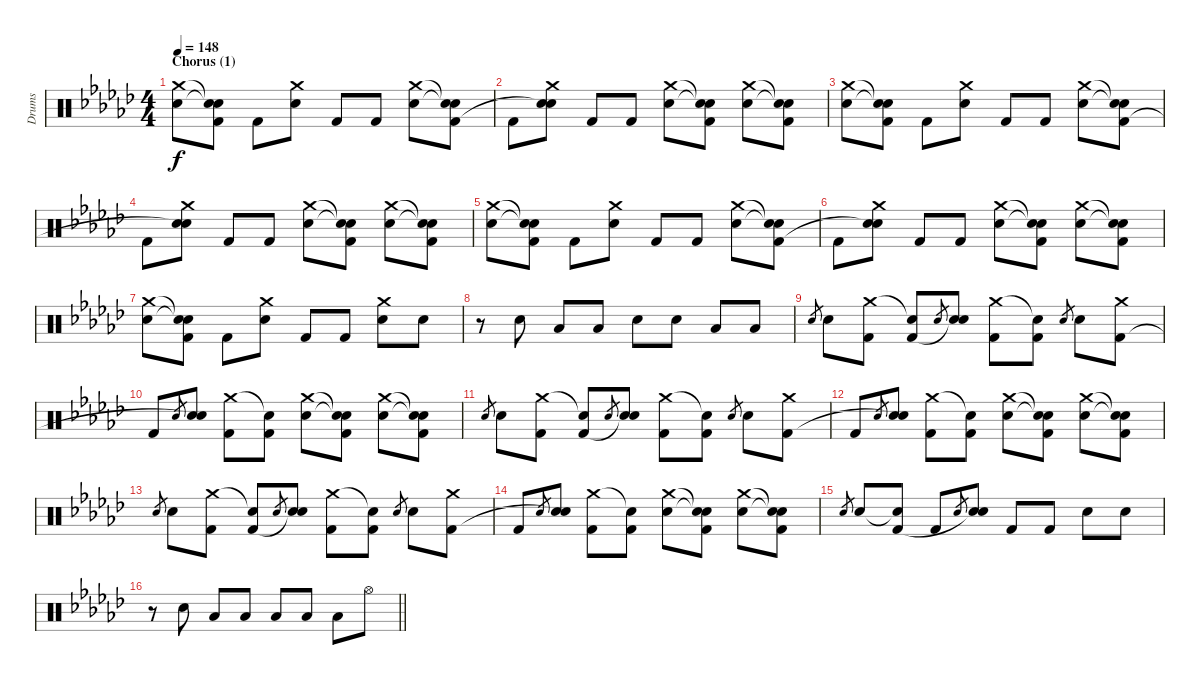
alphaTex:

\track ("Drums" "Drums") {instrument percussion}
\staff {score}
\articulation defaults
\ts (4 4)
\section ("" "Chorus (1)")
\tempo 148
\clef neutral
\ks ebminor
("Crash medium (hit)" "Electric Snare (hit)").8{dy f} ("Snare (hit)"{t} "Snare (hit)"{t} "Kick (hit) 2").8 "Kick (hit) 2".8 ("Crash medium (hit)" "Electric Snare (hit)").8 "Kick (hit) 2".8 "Kick (hit) 2".8 ("Crash medium (hit)" "Electric Snare (hit)").8 ("Snare (hit)"{t} "Snare (hit)"{t} "Kick (hit) 2").8 |
"Kick (hit) 2".8 ("Crash medium (hit)" "Electric Snare (hit)" "Snare (hit)"{t}).8 "Kick (hit) 2".8 "Kick (hit) 2".8 ("Crash medium (hit)" "Electric Snare (hit)").8 ("Snare (hit)"{t} "Snare (hit)"{t} "Kick (hit) 2").8 ("Crash medium (hit)" "Electric Snare (hit)").8 ("Snare (hit)"{t} "Snare (hit)"{t} "Kick (hit) 2").8 |
("Crash medium (hit)" "Electric Snare (hit)").8 ("Snare (hit)"{t} "Snare (hit)"{t} "Kick (hit) 2").8 "Kick (hit) 2".8 ("Crash medium (hit)" "Electric Snare (hit)").8 "Kick (hit) 2".8 "Kick (hit) 2".8 ("Crash medium (hit)" "Electric Snare (hit)").8 ("Snare (hit)"{t} "Snare (hit)"{t} "Kick (hit) 2").8 |
"Kick (hit) 2".8 ("Crash medium (hit)" "Electric Snare (hit)" "Snare (hit)"{t}).8 "Kick (hit) 2".8 "Kick (hit) 2".8 ("Crash medium (hit)" "Electric Snare (hit)").8 ("Snare (hit)"{t} "Snare (hit)"{t} "Kick (hit) 2").8 ("Crash medium (hit)" "Electric Snare (hit)").8 ("Snare (hit)"{t} "Snare (hit)"{t} "Kick (hit) 2").8 |
("Crash medium (hit)" "Electric Snare (hit)").8 ("Snare (hit)"{t} "Snare (hit)"{t} "Kick (hit) 2").8 "Kick (hit) 2".8 ("Crash medium (hit)" "Electric Snare (hit)").8 "Kick (hit) 2".8 "Kick (hit) 2".8 ("Crash medium (hit)" "Electric Snare (hit)").8 ("Snare (hit)"{t} "Snare (hit)"{t} "Kick (hit) 2").8 |
"Kick (hit) 2".8 ("Crash medium (hit)" "Electric Snare (hit)" "Snare (hit)"{t}).8 "Kick (hit) 2".8 "Kick (hit) 2".8 ("Crash medium (hit)" "Electric Snare (hit)").8 ("Snare (hit)"{t} "Snare (hit)"{t} "Kick (hit) 2").8 ("Crash medium (hit)" "Electric Snare (hit)").8 ("Snare (hit)"{t} "Snare (hit)"{t} "Kick (hit) 2").8 |
("Crash medium (hit)" "Electric Snare (hit)").8 ("Snare (hit)"{t} "Snare (hit)"{t} "Kick (hit) 2").8 "Kick (hit) 2".8 ("Crash medium (hit)" "Electric Snare (hit)").8 "Kick (hit) 2".8 "Kick (hit) 2".8 ("Crash medium (hit)" "Electric Snare (hit)").8 "Electric Snare (hit)".8 |
r.8 "Electric Snare (hit)".8 "Low Floor Tom (hit)".8 "Low Floor Tom (hit)".8 "Electric Snare (hit)".8 "Electric Snare (hit)".8 "Low Floor Tom (hit)".8 "Low Floor Tom (hit)".8 |
"Electric Snare (hit)".8{gr} "Electric Snare (hit)".8 ("Crash medium (hit)" "Kick (hit) 2").8 ("Snare (hit)"{t} "Kick (hit) 2").8 "Electric Snare (hit)".8{gr} ("Electric Snare (hit)" "Snare (hit)"{t}).8 ("Crash medium (hit)" "Kick (hit) 2").8 ("Snare (hit)"{t} "Kick (hit) 2").8 "Electric Snare (hit)".8{gr} "Electric Snare (hit)".8 ("Crash medium (hit)" "Kick (hit) 2").8 |
"Kick (hit) 2".8 "Electric Snare (hit)".8{gr} ("Electric Snare (hit)" "Snare (hit)"{t}).8 ("Crash medium (hit)" "Kick (hit) 2").8 ("Snare (hit)"{t} "Kick (hit) 2").8 ("Crash medium (hit)" "Electric Snare (hit)").8 ("Snare (hit)"{t} "Snare (hit)"{t} "Kick (hit) 2").8 ("Crash medium (hit)" "Electric Snare (hit)").8 ("Snare (hit)"{t} "Snare (hit)"{t} "Kick (hit) 2").8 |
"Electric Snare (hit)".8{gr} "Electric Snare (hit)".8 ("Crash medium (hit)" "Kick (hit) 2").8 ("Snare (hit)"{t} "Kick (hit) 2").8 "Electric Snare (hit)".8{gr} ("Electric Snare (hit)" "Snare (hit)"{t}).8 ("Crash medium (hit)" "Kick (hit) 2").8 ("Snare (hit)"{t} "Kick (hit) 2").8 "Electric Snare (hit)".8{gr} "Electric Snare (hit)".8 ("Crash medium (hit)" "Kick (hit) 2").8 |
"Kick (hit) 2".8 "Electric Snare (hit)".8{gr} ("Electric Snare (hit)" "Snare (hit)"{t}).8 ("Crash medium (hit)" "Kick (hit) 2").8 ("Snare (hit)"{t} "Kick (hit) 2").8 ("Crash medium (hit)" "Electric Snare (hit)").8 ("Snare (hit)"{t} "Snare (hit)"{t} "Kick (hit) 2").8 ("Crash medium (hit)" "Electric Snare (hit)").8 ("Snare (hit)"{t} "Snare (hit)"{t} "Kick (hit) 2").8 |
"Electric Snare (hit)".8{gr} "Electric Snare (hit)".8 ("Crash medium (hit)" "Kick (hit) 2").8 ("Snare (hit)"{t} "Kick (hit) 2").8 "Electric Snare (hit)".8{gr} ("Electric Snare (hit)" "Snare (hit)"{t}).8 ("Crash medium (hit)" "Kick (hit) 2").8 ("Snare (hit)"{t} "Kick (hit) 2").8 "Electric Snare (hit)".8{gr} "Electric Snare (hit)".8 ("Crash medium (hit)" "Kick (hit) 2").8 |
"Kick (hit) 2".8 "Electric Snare (hit)".8{gr} ("Electric Snare (hit)" "Snare (hit)"{t}).8 ("Crash medium (hit)" "Kick (hit) 2").8 ("Snare (hit)"{t} "Kick (hit) 2").8 ("Crash medium (hit)" "Electric Snare (hit)").8 ("Snare (hit)"{t} "Snare (hit)"{t} "Kick (hit) 2").8 ("Crash medium (hit)" "Electric Snare (hit)").8 ("Snare (hit)"{t} "Snare (hit)"{t} "Kick (hit) 2").8 |
"Electric Snare (hit)".8{gr} "Electric Snare (hit)".8 ("Snare (hit)"{t} "Kick (hit) 2").8 "Kick (hit) 2".8 "Electric Snare (hit)".8{gr} ("Electric Snare (hit)" "Snare (hit)"{t}).8 "Kick (hit) 2".8 "Kick (hit) 2".8 "Electric Snare (hit)".8 "Electric Snare (hit)".8 |
\barLineRight lightlight
r.8 "Electric Snare (hit)".8 "Low Floor Tom (hit)".8 "Low Floor Tom (hit)".8 "Low Floor Tom (hit)".8 "Low Floor Tom (hit)".8 "Low Floor Tom (hit)".8 "Hi-Hat (open)".8
